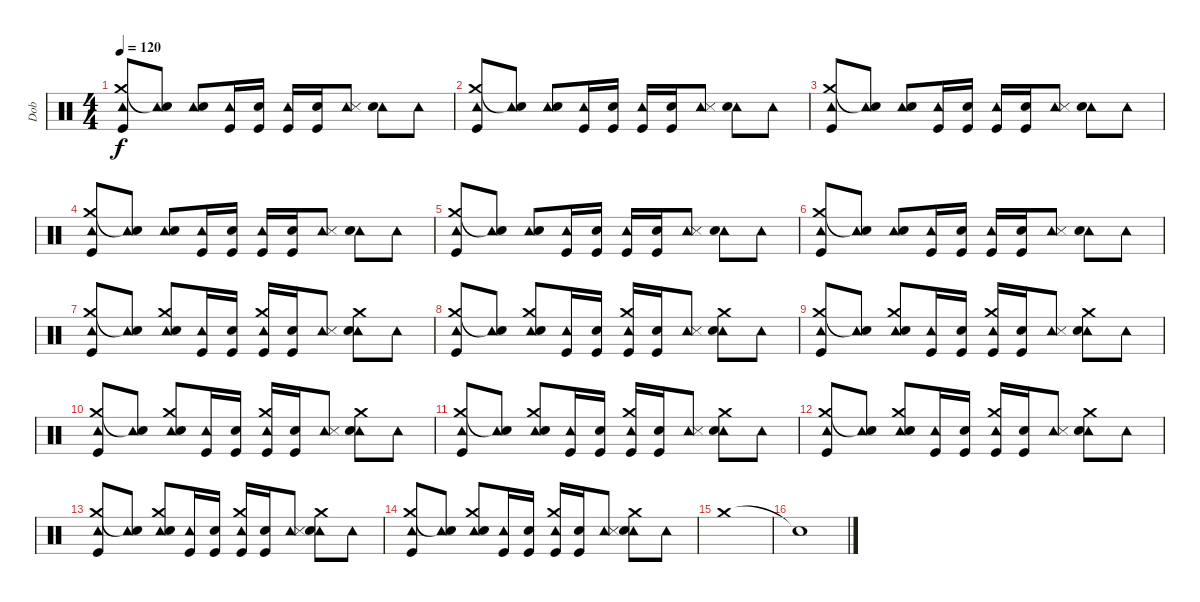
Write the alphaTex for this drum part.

\track ("Dob" "Dob") {instrument percussion}
\staff {score}
\articulation defaults
\ts (4 4)
\tempo 120
\clef neutral
\ks c
("Tambourine (hit)" "Crash medium (hit)" "Kick (hit)").8{dy f} ("Tambourine (hit)" "Snare (hit)"{t}).8 ("Tambourine (hit)" "Snare (hit) 2").8 ("Tambourine (hit)" "Kick (hit)").16 ("Snare (hit) 2" "Kick (hit)").16 ("Tambourine (hit)" "Kick (hit)").16 ("Snare (hit) 2" "Kick (hit)").16 ("Tambourine (hit)" "Snare (side stick) 3").8 ("Tambourine (hit)" "Snare (hit) 2").8 "Tambourine (hit)".8 |
("Tambourine (hit)" "Crash medium (hit)" "Kick (hit)").8 ("Tambourine (hit)" "Snare (hit)"{t}).8 ("Tambourine (hit)" "Snare (hit) 2").8 ("Tambourine (hit)" "Kick (hit)").16 ("Snare (hit) 2" "Kick (hit)").16 ("Tambourine (hit)" "Kick (hit)").16 ("Snare (hit) 2" "Kick (hit)").16 ("Tambourine (hit)" "Snare (side stick) 3").8 ("Tambourine (hit)" "Snare (hit) 2").8 "Tambourine (hit)".8 |
("Tambourine (hit)" "Crash medium (hit)" "Kick (hit)").8 ("Tambourine (hit)" "Snare (hit)"{t}).8 ("Tambourine (hit)" "Snare (hit) 2").8 ("Tambourine (hit)" "Kick (hit)").16 ("Snare (hit) 2" "Kick (hit)").16 ("Tambourine (hit)" "Kick (hit)").16 ("Snare (hit) 2" "Kick (hit)").16 ("Tambourine (hit)" "Snare (side stick) 3").8 ("Tambourine (hit)" "Snare (hit) 2").8 "Tambourine (hit)".8 |
("Tambourine (hit)" "Crash medium (hit)" "Kick (hit)").8 ("Tambourine (hit)" "Snare (hit)"{t}).8 ("Tambourine (hit)" "Snare (hit) 2").8 ("Tambourine (hit)" "Kick (hit)").16 ("Snare (hit) 2" "Kick (hit)").16 ("Tambourine (hit)" "Kick (hit)").16 ("Snare (hit) 2" "Kick (hit)").16 ("Tambourine (hit)" "Snare (side stick) 3").8 ("Tambourine (hit)" "Snare (hit) 2").8 "Tambourine (hit)".8 |
("Tambourine (hit)" "Crash medium (hit)" "Kick (hit)").8 ("Tambourine (hit)" "Snare (hit)"{t}).8 ("Tambourine (hit)" "Snare (hit) 2").8 ("Tambourine (hit)" "Kick (hit)").16 ("Snare (hit) 2" "Kick (hit)").16 ("Tambourine (hit)" "Kick (hit)").16 ("Snare (hit) 2" "Kick (hit)").16 ("Tambourine (hit)" "Snare (side stick) 3").8 ("Tambourine (hit)" "Snare (hit) 2").8 "Tambourine (hit)".8 |
("Tambourine (hit)" "Crash medium (hit)" "Kick (hit)").8 ("Tambourine (hit)" "Snare (hit)"{t}).8 ("Tambourine (hit)" "Snare (hit) 2").8 ("Tambourine (hit)" "Kick (hit)").16 ("Snare (hit) 2" "Kick (hit)").16 ("Tambourine (hit)" "Kick (hit)").16 ("Snare (hit) 2" "Kick (hit)").16 ("Tambourine (hit)" "Snare (side stick) 3").8 ("Tambourine (hit)" "Snare (hit) 2").8 "Tambourine (hit)".8 |
("Tambourine (hit)" "Crash medium (hit)" "Kick (hit)").8 ("Tambourine (hit)" "Snare (hit)"{t}).8 ("Tambourine (hit)" "Snare (hit) 2" "Crash medium (hit)").8 ("Tambourine (hit)" "Kick (hit)").16 ("Snare (hit) 2" "Kick (hit)").16 ("Tambourine (hit)" "Crash medium (hit)" "Kick (hit)").16 ("Snare (hit) 2" "Kick (hit)").16 ("Tambourine (hit)" "Snare (side stick) 3").8 ("Tambourine (hit)" "Snare (hit) 2" "Crash medium (hit)").8 "Tambourine (hit)".8 |
("Tambourine (hit)" "Crash medium (hit)" "Kick (hit)").8 ("Tambourine (hit)" "Snare (hit)"{t}).8 ("Tambourine (hit)" "Snare (hit) 2" "Crash medium (hit)").8 ("Tambourine (hit)" "Kick (hit)").16 ("Snare (hit) 2" "Kick (hit)").16 ("Tambourine (hit)" "Crash medium (hit)" "Kick (hit)").16 ("Snare (hit) 2" "Kick (hit)").16 ("Tambourine (hit)" "Snare (side stick) 3").8 ("Tambourine (hit)" "Snare (hit) 2" "Crash medium (hit)").8 "Tambourine (hit)".8 |
("Tambourine (hit)" "Crash medium (hit)" "Kick (hit)").8 ("Tambourine (hit)" "Snare (hit)"{t}).8 ("Tambourine (hit)" "Snare (hit) 2" "Crash medium (hit)").8 ("Tambourine (hit)" "Kick (hit)").16 ("Snare (hit) 2" "Kick (hit)").16 ("Tambourine (hit)" "Crash medium (hit)" "Kick (hit)").16 ("Snare (hit) 2" "Kick (hit)").16 ("Tambourine (hit)" "Snare (side stick) 3").8 ("Tambourine (hit)" "Snare (hit) 2" "Crash medium (hit)").8 "Tambourine (hit)".8 |
("Tambourine (hit)" "Crash medium (hit)" "Kick (hit)").8 ("Tambourine (hit)" "Snare (hit)"{t}).8 ("Tambourine (hit)" "Snare (hit) 2" "Crash medium (hit)").8 ("Tambourine (hit)" "Kick (hit)").16 ("Snare (hit) 2" "Kick (hit)").16 ("Tambourine (hit)" "Crash medium (hit)" "Kick (hit)").16 ("Snare (hit) 2" "Kick (hit)").16 ("Tambourine (hit)" "Snare (side stick) 3").8 ("Tambourine (hit)" "Snare (hit) 2" "Crash medium (hit)").8 "Tambourine (hit)".8 |
("Tambourine (hit)" "Crash medium (hit)" "Kick (hit)").8 ("Tambourine (hit)" "Snare (hit)"{t}).8 ("Tambourine (hit)" "Snare (hit) 2" "Crash medium (hit)").8 ("Tambourine (hit)" "Kick (hit)").16 ("Snare (hit) 2" "Kick (hit)").16 ("Tambourine (hit)" "Crash medium (hit)" "Kick (hit)").16 ("Snare (hit) 2" "Kick (hit)").16 ("Tambourine (hit)" "Snare (side stick) 3").8 ("Tambourine (hit)" "Snare (hit) 2" "Crash medium (hit)").8 "Tambourine (hit)".8 |
("Tambourine (hit)" "Crash medium (hit)" "Kick (hit)").8 ("Tambourine (hit)" "Snare (hit)"{t}).8 ("Tambourine (hit)" "Snare (hit) 2" "Crash medium (hit)").8 ("Tambourine (hit)" "Kick (hit)").16 ("Snare (hit) 2" "Kick (hit)").16 ("Tambourine (hit)" "Crash medium (hit)" "Kick (hit)").16 ("Snare (hit) 2" "Kick (hit)").16 ("Tambourine (hit)" "Snare (side stick) 3").8 ("Tambourine (hit)" "Snare (hit) 2" "Crash medium (hit)").8 "Tambourine (hit)".8 |
("Tambourine (hit)" "Crash medium (hit)" "Kick (hit)").8 ("Tambourine (hit)" "Snare (hit)"{t}).8 ("Tambourine (hit)" "Snare (hit) 2" "Crash medium (hit)").8 ("Tambourine (hit)" "Kick (hit)").16 ("Snare (hit) 2" "Kick (hit)").16 ("Tambourine (hit)" "Crash medium (hit)" "Kick (hit)").16 ("Snare (hit) 2" "Kick (hit)").16 ("Tambourine (hit)" "Snare (side stick) 3").8 ("Tambourine (hit)" "Snare (hit) 2" "Crash medium (hit)").8 "Tambourine (hit)".8 |
("Tambourine (hit)" "Crash medium (hit)" "Kick (hit)").8 ("Tambourine (hit)" "Snare (hit)"{t}).8 ("Tambourine (hit)" "Snare (hit) 2" "Crash medium (hit)").8 ("Tambourine (hit)" "Kick (hit)").16 ("Snare (hit) 2" "Kick (hit)").16 ("Tambourine (hit)" "Crash medium (hit)" "Kick (hit)").16 ("Snare (hit) 2" "Kick (hit)").16 ("Tambourine (hit)" "Snare (side stick) 3").8 ("Tambourine (hit)" "Snare (hit) 2" "Crash medium (hit)").8 "Tambourine (hit)".8 |
"Crash medium (hit)".1 |
"Snare (hit)"{t}.1
